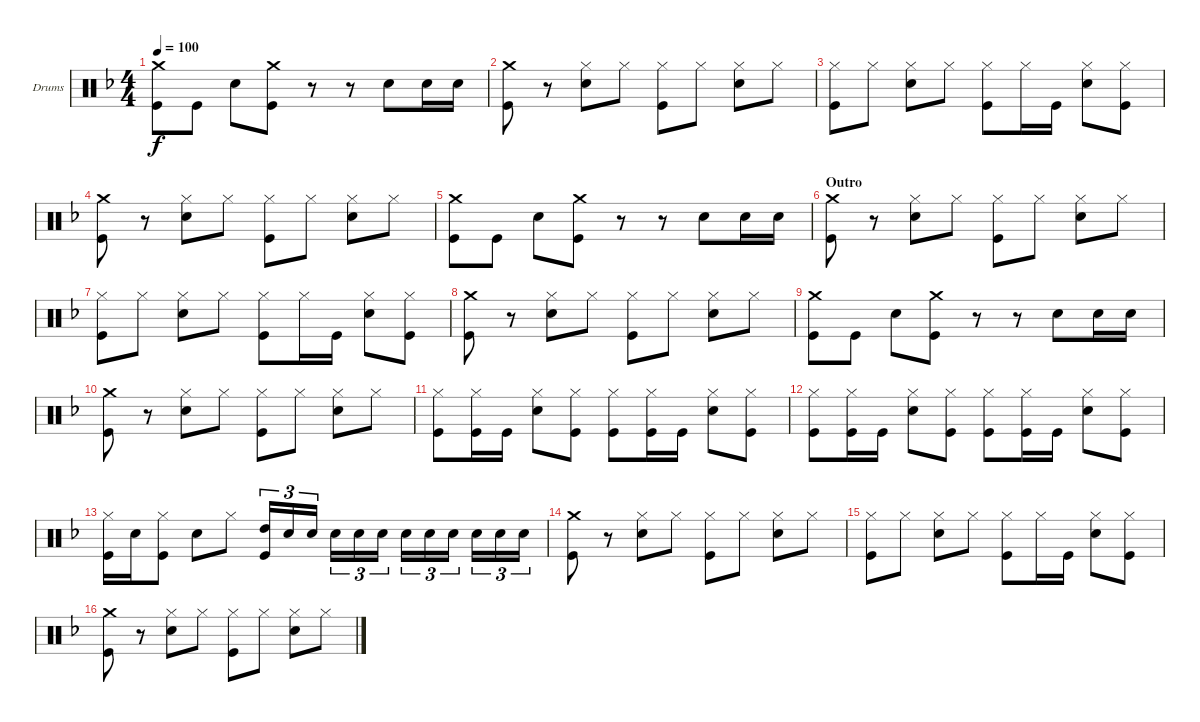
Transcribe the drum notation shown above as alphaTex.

\bracketExtendMode groupsimilarinstruments
\firstSystemTrackNameOrientation horizontal
\otherSystemsTrackNameOrientation horizontal
\track ("Drums" "Drums") {instrument percussion}
\staff {score}
\articulation defaults
\ts (4 4)
\tempo 100
\clef neutral
\ks dminor
("Crash medium (hit)" "Kick (hit)").8{dy f} "Kick (hit)".8 "Snare (hit) 2".8 ("Crash medium (hit)" "Kick (hit)").8 r.8 r.8 "Snare (hit) 2".8 "Snare (hit) 2".16 "Snare (hit) 2".16 |
("Crash medium (hit)" "Kick (hit)").8 r.8 ("Hi-Hat (closed)" "Snare (hit) 2").8 "Hi-Hat (closed)".8 ("Hi-Hat (closed)" "Kick (hit)").8 "Hi-Hat (closed)".8 ("Hi-Hat (closed)" "Snare (hit) 2").8 "Hi-Hat (closed)".8 |
("Hi-Hat (closed)" "Kick (hit)").8 "Hi-Hat (closed)".8 ("Hi-Hat (closed)" "Snare (hit) 2").8 "Hi-Hat (closed)".8 ("Hi-Hat (closed)" "Kick (hit)").8 "Hi-Hat (closed)".16 "Kick (hit)".16 ("Hi-Hat (closed)" "Snare (hit) 2").8 ("Hi-Hat (closed)" "Kick (hit)").8 |
("Crash medium (hit)" "Kick (hit)").8 r.8 ("Hi-Hat (closed)" "Snare (hit) 2").8 "Hi-Hat (closed)".8 ("Hi-Hat (closed)" "Kick (hit)").8 "Hi-Hat (closed)".8 ("Hi-Hat (closed)" "Snare (hit) 2").8 "Hi-Hat (closed)".8 |
("Crash medium (hit)" "Kick (hit)").8 "Kick (hit)".8 "Snare (hit) 2".8 ("Crash medium (hit)" "Kick (hit)").8 r.8 r.8 "Snare (hit) 2".8 "Snare (hit) 2".16 "Snare (hit) 2".16 |
\section ("" "Outro")
("Crash medium (hit)" "Kick (hit)").8 r.8 ("Hi-Hat (closed)" "Snare (hit) 2").8 "Hi-Hat (closed)".8 ("Hi-Hat (closed)" "Kick (hit)").8 "Hi-Hat (closed)".8 ("Hi-Hat (closed)" "Snare (hit) 2").8 "Hi-Hat (closed)".8 |
("Hi-Hat (closed)" "Kick (hit)").8 "Hi-Hat (closed)".8 ("Hi-Hat (closed)" "Snare (hit) 2").8 "Hi-Hat (closed)".8 ("Hi-Hat (closed)" "Kick (hit)").8 "Hi-Hat (closed)".16 "Kick (hit)".16 ("Hi-Hat (closed)" "Snare (hit) 2").8 ("Hi-Hat (closed)" "Kick (hit)").8 |
("Crash medium (hit)" "Kick (hit)").8 r.8 ("Hi-Hat (closed)" "Snare (hit) 2").8 "Hi-Hat (closed)".8 ("Hi-Hat (closed)" "Kick (hit)").8 "Hi-Hat (closed)".8 ("Hi-Hat (closed)" "Snare (hit) 2").8 "Hi-Hat (closed)".8 |
("Crash medium (hit)" "Kick (hit)").8 "Kick (hit)".8 "Snare (hit) 2".8 ("Crash medium (hit)" "Kick (hit)").8 r.8 r.8 "Snare (hit) 2".8 "Snare (hit) 2".16 "Snare (hit) 2".16 |
("Crash medium (hit)" "Kick (hit)").8 r.8 ("Hi-Hat (closed)" "Snare (hit) 2").8 "Hi-Hat (closed)".8 ("Hi-Hat (closed)" "Kick (hit)").8 "Hi-Hat (closed)".8 ("Hi-Hat (closed)" "Snare (hit) 2").8 "Hi-Hat (closed)".8 |
("Hi-Hat (closed)" "Kick (hit)").8 ("Hi-Hat (closed)" "Kick (hit)").16 "Kick (hit)".16 ("Hi-Hat (closed)" "Snare (hit) 2").8 ("Hi-Hat (closed)" "Kick (hit)").8 ("Hi-Hat (closed)" "Kick (hit)").8 ("Hi-Hat (closed)" "Kick (hit)").16 "Kick (hit)".16 ("Hi-Hat (closed)" "Snare (hit) 2").8 ("Hi-Hat (closed)" "Kick (hit)").8 |
("Hi-Hat (closed)" "Kick (hit)").8 ("Hi-Hat (closed)" "Kick (hit)").16 "Kick (hit)".16 ("Hi-Hat (closed)" "Snare (hit) 2").8 ("Hi-Hat (closed)" "Kick (hit)").8 ("Hi-Hat (closed)" "Kick (hit)").8 ("Hi-Hat (closed)" "Kick (hit)").16 "Kick (hit)".16 ("Hi-Hat (closed)" "Snare (hit) 2").8 ("Hi-Hat (closed)" "Kick (hit)").8 |
("Hi-Hat (closed)" "Kick (hit)").16 "Snare (hit) 2".16 ("Hi-Hat (closed)" "Kick (hit)").8 "Snare (hit) 2".8 "Hi-Hat (closed)".8 ("High Tom (hit)" "Kick (hit)").16{tu (3 2)} "Snare (hit) 2".16{tu (3 2)} "Snare (hit) 2".16{tu (3 2)} "Snare (hit) 2".16{tu (3 2)} "Snare (hit) 2".16{tu (3 2)} "Snare (hit) 2".16{tu (3 2)} "Snare (hit) 2".16{tu (3 2)} "Snare (hit) 2".16{tu (3 2)} "Snare (hit) 2".16{tu (3 2)} "Snare (hit) 2".16{tu (3 2)} "Snare (hit) 2".16{tu (3 2)} "Snare (hit) 2".16{tu (3 2)} |
("Crash medium (hit)" "Kick (hit)").8 r.8 ("Hi-Hat (closed)" "Snare (hit) 2").8 "Hi-Hat (closed)".8 ("Hi-Hat (closed)" "Kick (hit)").8 "Hi-Hat (closed)".8 ("Hi-Hat (closed)" "Snare (hit) 2").8 "Hi-Hat (closed)".8 |
("Hi-Hat (closed)" "Kick (hit)").8 "Hi-Hat (closed)".8 ("Hi-Hat (closed)" "Snare (hit) 2").8 "Hi-Hat (closed)".8 ("Hi-Hat (closed)" "Kick (hit)").8 "Hi-Hat (closed)".16 "Kick (hit)".16 ("Hi-Hat (closed)" "Snare (hit) 2").8 ("Hi-Hat (closed)" "Kick (hit)").8 |
("Crash medium (hit)" "Kick (hit)").8 r.8 ("Hi-Hat (closed)" "Snare (hit) 2").8 "Hi-Hat (closed)".8 ("Hi-Hat (closed)" "Kick (hit)").8 "Hi-Hat (closed)".8 ("Hi-Hat (closed)" "Snare (hit) 2").8 "Hi-Hat (closed)".8
